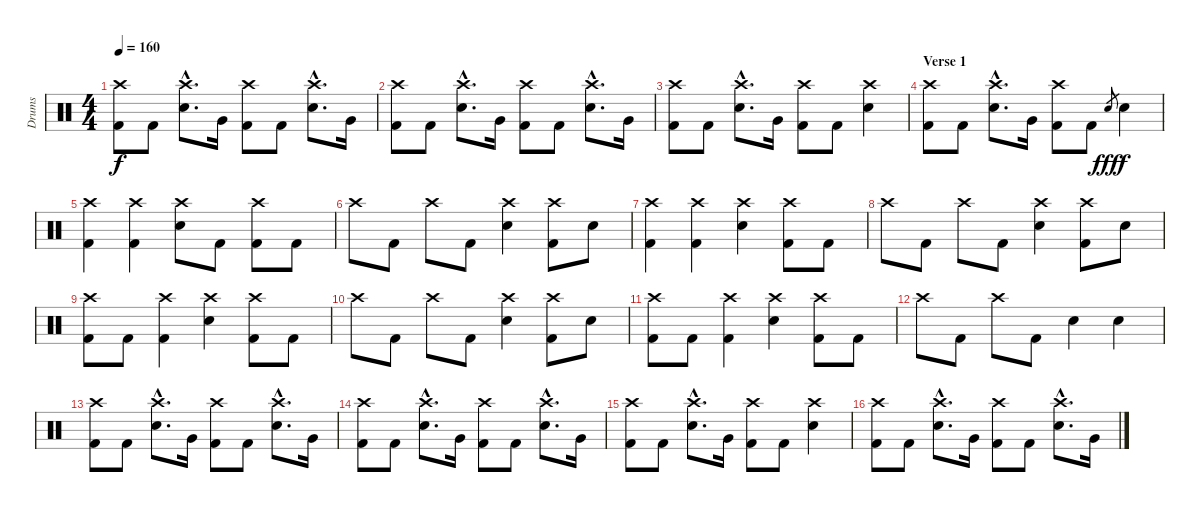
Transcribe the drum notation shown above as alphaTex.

\track ("Drums" "Drums") {instrument percussion}
\staff {score}
\articulation defaults
\ts (4 4)
\tempo 160
\clef neutral
\ks c
("Crash high (hit)" "Kick (hit) 2").8{dy f} "Kick (hit) 2".8 ("Crash high (hit)"{hac} "Electric Snare (hit)"{hac}).8{d} "Very Low Tom (hit)".16 ("Crash high (hit)" "Kick (hit) 2").8 "Kick (hit) 2".8 ("Crash high (hit)"{hac} "Electric Snare (hit)"{hac}).8{d} "Very Low Tom (hit)".16 |
("Crash high (hit)" "Kick (hit) 2").8 "Kick (hit) 2".8 ("Crash high (hit)"{hac} "Electric Snare (hit)"{hac}).8{d} "Very Low Tom (hit)".16 ("Crash high (hit)" "Kick (hit) 2").8 "Kick (hit) 2".8 ("Crash high (hit)"{hac} "Electric Snare (hit)"{hac}).8{d} "Very Low Tom (hit)".16 |
("Crash high (hit)" "Kick (hit) 2").8 "Kick (hit) 2".8 ("Crash high (hit)"{hac} "Electric Snare (hit)"{hac}).8{d} "Very Low Tom (hit)".16 ("Crash high (hit)" "Kick (hit) 2").8 "Kick (hit) 2".8 ("Crash high (hit)" "Electric Snare (hit)").4 |
\section ("" "Verse 1")
("Crash high (hit)" "Kick (hit) 2").8 "Kick (hit) 2".8 ("Crash high (hit)"{hac} "Electric Snare (hit)"{hac}).8{d} "Very Low Tom (hit)".16 ("Crash high (hit)" "Kick (hit) 2").8 "Kick (hit) 2".8 "Electric Snare (hit)".8{gr dy fff} "Electric Snare (hit)".4{dy f} |
("Crash high (hit)" "Kick (hit) 2").4 ("Crash high (hit)" "Kick (hit) 2").4 ("Crash high (hit)" "Electric Snare (hit)").8 "Kick (hit) 2".8 ("Crash high (hit)" "Kick (hit) 2").8 "Kick (hit) 2".8 |
"Crash high (hit)".8 "Kick (hit) 2".8 "Crash high (hit)".8 "Kick (hit) 2".8 ("Crash high (hit)" "Electric Snare (hit)").4 ("Crash high (hit)" "Kick (hit) 2").8 "Electric Snare (hit)".8 |
("Crash high (hit)" "Kick (hit) 2").4 ("Crash high (hit)" "Kick (hit) 2").4 ("Crash high (hit)" "Electric Snare (hit)").4 ("Crash high (hit)" "Kick (hit) 2").8 "Kick (hit) 2".8 |
"Crash high (hit)".8 "Kick (hit) 2".8 "Crash high (hit)".8 "Kick (hit) 2".8 ("Crash high (hit)" "Electric Snare (hit)").4 ("Crash high (hit)" "Kick (hit) 2").8 "Electric Snare (hit)".8 |
("Crash high (hit)" "Kick (hit) 2").8 "Kick (hit) 2".8 ("Crash high (hit)" "Kick (hit) 2").4 ("Crash high (hit)" "Electric Snare (hit)").4 ("Crash high (hit)" "Kick (hit) 2").8 "Kick (hit) 2".8 |
"Crash high (hit)".8 "Kick (hit) 2".8 "Crash high (hit)".8 "Kick (hit) 2".8 ("Crash high (hit)" "Electric Snare (hit)").4 ("Crash high (hit)" "Kick (hit) 2").8 "Electric Snare (hit)".8 |
("Crash high (hit)" "Kick (hit) 2").8 "Kick (hit) 2".8 ("Crash high (hit)" "Kick (hit) 2").4 ("Crash high (hit)" "Electric Snare (hit)").4 ("Crash high (hit)" "Kick (hit) 2").8 "Kick (hit) 2".8 |
"Crash high (hit)".8 "Kick (hit) 2".8 "Crash high (hit)".8 "Kick (hit) 2".8 "Electric Snare (hit)".4 "Electric Snare (hit)".4 |
("Crash high (hit)" "Kick (hit) 2").8 "Kick (hit) 2".8 ("Crash high (hit)"{hac} "Electric Snare (hit)"{hac}).8{d} "Very Low Tom (hit)".16 ("Crash high (hit)" "Kick (hit) 2").8 "Kick (hit) 2".8 ("Crash high (hit)"{hac} "Electric Snare (hit)"{hac}).8{d} "Very Low Tom (hit)".16 |
("Crash high (hit)" "Kick (hit) 2").8 "Kick (hit) 2".8 ("Crash high (hit)"{hac} "Electric Snare (hit)"{hac}).8{d} "Very Low Tom (hit)".16 ("Crash high (hit)" "Kick (hit) 2").8 "Kick (hit) 2".8 ("Crash high (hit)"{hac} "Electric Snare (hit)"{hac}).8{d} "Very Low Tom (hit)".16 |
("Crash high (hit)" "Kick (hit) 2").8 "Kick (hit) 2".8 ("Crash high (hit)"{hac} "Electric Snare (hit)"{hac}).8{d} "Very Low Tom (hit)".16 ("Crash high (hit)" "Kick (hit) 2").8 "Kick (hit) 2".8 ("Crash high (hit)" "Electric Snare (hit)").4 |
("Crash high (hit)" "Kick (hit) 2").8 "Kick (hit) 2".8 ("Crash high (hit)"{hac} "Electric Snare (hit)"{hac}).8{d} "Very Low Tom (hit)".16 ("Crash high (hit)" "Kick (hit) 2").8 "Kick (hit) 2".8 ("Crash high (hit)"{hac} "Electric Snare (hit)"{hac}).8{d} "Very Low Tom (hit)".16
